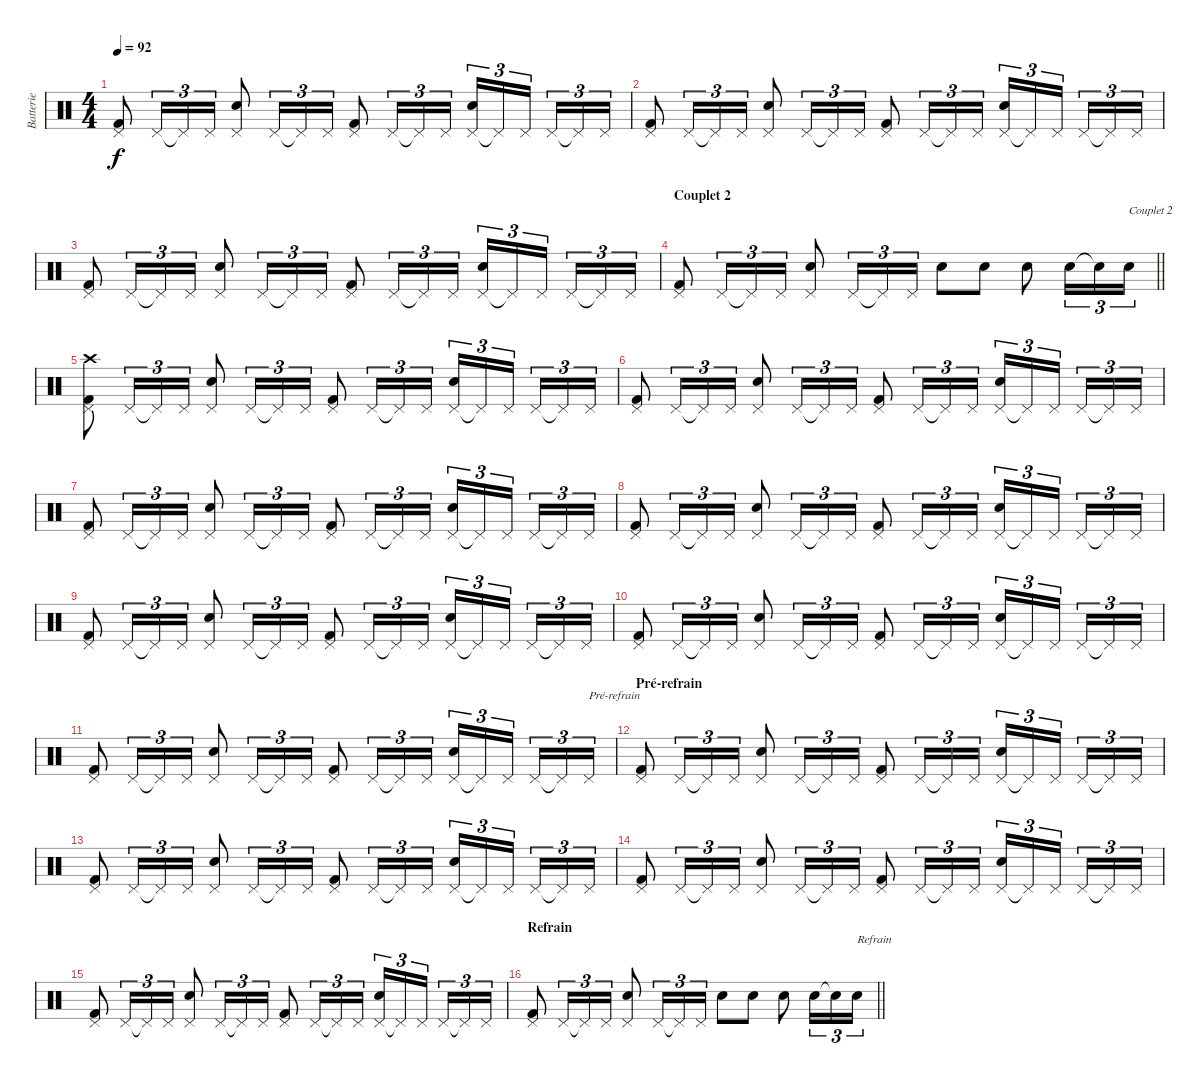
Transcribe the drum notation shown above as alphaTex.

\track ("Batterie" "Batterie") {instrument percussion}
\staff {score}
\articulation defaults
\ts (4 4)
\tempo 92
\clef neutral
\ks c
("Pedal Hi-Hat (hit)" "Kick (hit) 2").8{dy f} "Pedal Hi-Hat (hit)".16{tu (3 2)} "Pedal Hi-Hat (hit)"{t}.16{tu (3 2)} "Pedal Hi-Hat (hit)".16{tu (3 2)} ("Pedal Hi-Hat (hit)" "Electric Snare (hit)").8 "Pedal Hi-Hat (hit)".16{tu (3 2)} "Pedal Hi-Hat (hit)"{t}.16{tu (3 2)} "Pedal Hi-Hat (hit)".16{tu (3 2)} ("Pedal Hi-Hat (hit)" "Kick (hit) 2").8 "Pedal Hi-Hat (hit)".16{tu (3 2)} "Pedal Hi-Hat (hit)"{t}.16{tu (3 2)} "Pedal Hi-Hat (hit)".16{tu (3 2)} ("Pedal Hi-Hat (hit)" "Electric Snare (hit)").16{tu (3 2)} "Pedal Hi-Hat (hit)"{t}.16{tu (3 2)} "Pedal Hi-Hat (hit)".16{tu (3 2)} "Pedal Hi-Hat (hit)".16{tu (3 2)} "Pedal Hi-Hat (hit)"{t}.16{tu (3 2)} "Pedal Hi-Hat (hit)".16{tu (3 2)} |
("Pedal Hi-Hat (hit)" "Kick (hit) 2").8 "Pedal Hi-Hat (hit)".16{tu (3 2)} "Pedal Hi-Hat (hit)"{t}.16{tu (3 2)} "Pedal Hi-Hat (hit)".16{tu (3 2)} ("Pedal Hi-Hat (hit)" "Electric Snare (hit)").8 "Pedal Hi-Hat (hit)".16{tu (3 2)} "Pedal Hi-Hat (hit)"{t}.16{tu (3 2)} "Pedal Hi-Hat (hit)".16{tu (3 2)} ("Pedal Hi-Hat (hit)" "Kick (hit) 2").8 "Pedal Hi-Hat (hit)".16{tu (3 2)} "Pedal Hi-Hat (hit)"{t}.16{tu (3 2)} "Pedal Hi-Hat (hit)".16{tu (3 2)} ("Pedal Hi-Hat (hit)" "Electric Snare (hit)").16{tu (3 2)} "Pedal Hi-Hat (hit)"{t}.16{tu (3 2)} "Pedal Hi-Hat (hit)".16{tu (3 2)} "Pedal Hi-Hat (hit)".16{tu (3 2)} "Pedal Hi-Hat (hit)"{t}.16{tu (3 2)} "Pedal Hi-Hat (hit)".16{tu (3 2)} |
("Pedal Hi-Hat (hit)" "Kick (hit) 2").8 "Pedal Hi-Hat (hit)".16{tu (3 2)} "Pedal Hi-Hat (hit)"{t}.16{tu (3 2)} "Pedal Hi-Hat (hit)".16{tu (3 2)} ("Pedal Hi-Hat (hit)" "Electric Snare (hit)").8 "Pedal Hi-Hat (hit)".16{tu (3 2)} "Pedal Hi-Hat (hit)"{t}.16{tu (3 2)} "Pedal Hi-Hat (hit)".16{tu (3 2)} ("Pedal Hi-Hat (hit)" "Kick (hit) 2").8 "Pedal Hi-Hat (hit)".16{tu (3 2)} "Pedal Hi-Hat (hit)"{t}.16{tu (3 2)} "Pedal Hi-Hat (hit)".16{tu (3 2)} ("Pedal Hi-Hat (hit)" "Electric Snare (hit)").16{tu (3 2)} "Pedal Hi-Hat (hit)"{t}.16{tu (3 2)} "Pedal Hi-Hat (hit)".16{tu (3 2)} "Pedal Hi-Hat (hit)".16{tu (3 2)} "Pedal Hi-Hat (hit)"{t}.16{tu (3 2)} "Pedal Hi-Hat (hit)".16{tu (3 2)} |
\section ("" "Couplet 2")
\barLineRight lightlight
("Pedal Hi-Hat (hit)" "Kick (hit) 2").8 "Pedal Hi-Hat (hit)".16{tu (3 2)} "Pedal Hi-Hat (hit)"{t}.16{tu (3 2)} "Pedal Hi-Hat (hit)".16{tu (3 2)} ("Pedal Hi-Hat (hit)" "Electric Snare (hit)").8 "Pedal Hi-Hat (hit)".16{tu (3 2)} "Pedal Hi-Hat (hit)"{t}.16{tu (3 2)} "Pedal Hi-Hat (hit)".16{tu (3 2)} "Electric Snare (hit)".8 "Electric Snare (hit)".8 "Electric Snare (hit)".8 "Electric Snare (hit)".16{tu (3 2)} "Electric Snare (hit)"{t}.16{tu (3 2)} "Electric Snare (hit)".16{tu (3 2) txt "Couplet 2"} |
("Pedal Hi-Hat (hit)" "Crash high (hit)" "Kick (hit) 2").8 "Pedal Hi-Hat (hit)".16{tu (3 2)} "Pedal Hi-Hat (hit)"{t}.16{tu (3 2)} "Pedal Hi-Hat (hit)".16{tu (3 2)} ("Pedal Hi-Hat (hit)" "Electric Snare (hit)").8 "Pedal Hi-Hat (hit)".16{tu (3 2)} "Pedal Hi-Hat (hit)"{t}.16{tu (3 2)} "Pedal Hi-Hat (hit)".16{tu (3 2)} ("Pedal Hi-Hat (hit)" "Kick (hit) 2").8 "Pedal Hi-Hat (hit)".16{tu (3 2)} "Pedal Hi-Hat (hit)"{t}.16{tu (3 2)} "Pedal Hi-Hat (hit)".16{tu (3 2)} ("Pedal Hi-Hat (hit)" "Electric Snare (hit)").16{tu (3 2)} "Pedal Hi-Hat (hit)"{t}.16{tu (3 2)} "Pedal Hi-Hat (hit)".16{tu (3 2)} "Pedal Hi-Hat (hit)".16{tu (3 2)} "Pedal Hi-Hat (hit)"{t}.16{tu (3 2)} "Pedal Hi-Hat (hit)".16{tu (3 2)} |
("Pedal Hi-Hat (hit)" "Kick (hit) 2").8 "Pedal Hi-Hat (hit)".16{tu (3 2)} "Pedal Hi-Hat (hit)"{t}.16{tu (3 2)} "Pedal Hi-Hat (hit)".16{tu (3 2)} ("Pedal Hi-Hat (hit)" "Electric Snare (hit)").8 "Pedal Hi-Hat (hit)".16{tu (3 2)} "Pedal Hi-Hat (hit)"{t}.16{tu (3 2)} "Pedal Hi-Hat (hit)".16{tu (3 2)} ("Pedal Hi-Hat (hit)" "Kick (hit) 2").8 "Pedal Hi-Hat (hit)".16{tu (3 2)} "Pedal Hi-Hat (hit)"{t}.16{tu (3 2)} "Pedal Hi-Hat (hit)".16{tu (3 2)} ("Pedal Hi-Hat (hit)" "Electric Snare (hit)").16{tu (3 2)} "Pedal Hi-Hat (hit)"{t}.16{tu (3 2)} "Pedal Hi-Hat (hit)".16{tu (3 2)} "Pedal Hi-Hat (hit)".16{tu (3 2)} "Pedal Hi-Hat (hit)"{t}.16{tu (3 2)} "Pedal Hi-Hat (hit)".16{tu (3 2)} |
("Pedal Hi-Hat (hit)" "Kick (hit) 2").8 "Pedal Hi-Hat (hit)".16{tu (3 2)} "Pedal Hi-Hat (hit)"{t}.16{tu (3 2)} "Pedal Hi-Hat (hit)".16{tu (3 2)} ("Pedal Hi-Hat (hit)" "Electric Snare (hit)").8 "Pedal Hi-Hat (hit)".16{tu (3 2)} "Pedal Hi-Hat (hit)"{t}.16{tu (3 2)} "Pedal Hi-Hat (hit)".16{tu (3 2)} ("Pedal Hi-Hat (hit)" "Kick (hit) 2").8 "Pedal Hi-Hat (hit)".16{tu (3 2)} "Pedal Hi-Hat (hit)"{t}.16{tu (3 2)} "Pedal Hi-Hat (hit)".16{tu (3 2)} ("Pedal Hi-Hat (hit)" "Electric Snare (hit)").16{tu (3 2)} "Pedal Hi-Hat (hit)"{t}.16{tu (3 2)} "Pedal Hi-Hat (hit)".16{tu (3 2)} "Pedal Hi-Hat (hit)".16{tu (3 2)} "Pedal Hi-Hat (hit)"{t}.16{tu (3 2)} "Pedal Hi-Hat (hit)".16{tu (3 2)} |
("Pedal Hi-Hat (hit)" "Kick (hit) 2").8 "Pedal Hi-Hat (hit)".16{tu (3 2)} "Pedal Hi-Hat (hit)"{t}.16{tu (3 2)} "Pedal Hi-Hat (hit)".16{tu (3 2)} ("Pedal Hi-Hat (hit)" "Electric Snare (hit)").8 "Pedal Hi-Hat (hit)".16{tu (3 2)} "Pedal Hi-Hat (hit)"{t}.16{tu (3 2)} "Pedal Hi-Hat (hit)".16{tu (3 2)} ("Pedal Hi-Hat (hit)" "Kick (hit) 2").8 "Pedal Hi-Hat (hit)".16{tu (3 2)} "Pedal Hi-Hat (hit)"{t}.16{tu (3 2)} "Pedal Hi-Hat (hit)".16{tu (3 2)} ("Pedal Hi-Hat (hit)" "Electric Snare (hit)").16{tu (3 2)} "Pedal Hi-Hat (hit)"{t}.16{tu (3 2)} "Pedal Hi-Hat (hit)".16{tu (3 2)} "Pedal Hi-Hat (hit)".16{tu (3 2)} "Pedal Hi-Hat (hit)"{t}.16{tu (3 2)} "Pedal Hi-Hat (hit)".16{tu (3 2)} |
("Pedal Hi-Hat (hit)" "Kick (hit) 2").8 "Pedal Hi-Hat (hit)".16{tu (3 2)} "Pedal Hi-Hat (hit)"{t}.16{tu (3 2)} "Pedal Hi-Hat (hit)".16{tu (3 2)} ("Pedal Hi-Hat (hit)" "Electric Snare (hit)").8 "Pedal Hi-Hat (hit)".16{tu (3 2)} "Pedal Hi-Hat (hit)"{t}.16{tu (3 2)} "Pedal Hi-Hat (hit)".16{tu (3 2)} ("Pedal Hi-Hat (hit)" "Kick (hit) 2").8 "Pedal Hi-Hat (hit)".16{tu (3 2)} "Pedal Hi-Hat (hit)"{t}.16{tu (3 2)} "Pedal Hi-Hat (hit)".16{tu (3 2)} ("Pedal Hi-Hat (hit)" "Electric Snare (hit)").16{tu (3 2)} "Pedal Hi-Hat (hit)"{t}.16{tu (3 2)} "Pedal Hi-Hat (hit)".16{tu (3 2)} "Pedal Hi-Hat (hit)".16{tu (3 2)} "Pedal Hi-Hat (hit)"{t}.16{tu (3 2)} "Pedal Hi-Hat (hit)".16{tu (3 2)} |
("Pedal Hi-Hat (hit)" "Kick (hit) 2").8 "Pedal Hi-Hat (hit)".16{tu (3 2)} "Pedal Hi-Hat (hit)"{t}.16{tu (3 2)} "Pedal Hi-Hat (hit)".16{tu (3 2)} ("Pedal Hi-Hat (hit)" "Electric Snare (hit)").8 "Pedal Hi-Hat (hit)".16{tu (3 2)} "Pedal Hi-Hat (hit)"{t}.16{tu (3 2)} "Pedal Hi-Hat (hit)".16{tu (3 2)} ("Pedal Hi-Hat (hit)" "Kick (hit) 2").8 "Pedal Hi-Hat (hit)".16{tu (3 2)} "Pedal Hi-Hat (hit)"{t}.16{tu (3 2)} "Pedal Hi-Hat (hit)".16{tu (3 2)} ("Pedal Hi-Hat (hit)" "Electric Snare (hit)").16{tu (3 2)} "Pedal Hi-Hat (hit)"{t}.16{tu (3 2)} "Pedal Hi-Hat (hit)".16{tu (3 2)} "Pedal Hi-Hat (hit)".16{tu (3 2)} "Pedal Hi-Hat (hit)"{t}.16{tu (3 2)} "Pedal Hi-Hat (hit)".16{tu (3 2)} |
("Pedal Hi-Hat (hit)" "Kick (hit) 2").8 "Pedal Hi-Hat (hit)".16{tu (3 2)} "Pedal Hi-Hat (hit)"{t}.16{tu (3 2)} "Pedal Hi-Hat (hit)".16{tu (3 2)} ("Pedal Hi-Hat (hit)" "Electric Snare (hit)").8 "Pedal Hi-Hat (hit)".16{tu (3 2)} "Pedal Hi-Hat (hit)"{t}.16{tu (3 2)} "Pedal Hi-Hat (hit)".16{tu (3 2)} ("Pedal Hi-Hat (hit)" "Kick (hit) 2").8 "Pedal Hi-Hat (hit)".16{tu (3 2)} "Pedal Hi-Hat (hit)"{t}.16{tu (3 2)} "Pedal Hi-Hat (hit)".16{tu (3 2)} ("Pedal Hi-Hat (hit)" "Electric Snare (hit)").16{tu (3 2)} "Pedal Hi-Hat (hit)"{t}.16{tu (3 2)} "Pedal Hi-Hat (hit)".16{tu (3 2)} "Pedal Hi-Hat (hit)".16{tu (3 2)} "Pedal Hi-Hat (hit)"{t}.16{tu (3 2)} "Pedal Hi-Hat (hit)".16{tu (3 2) txt "Pré-refrain"} |
\section ("" "Pré-refrain")
("Pedal Hi-Hat (hit)" "Kick (hit) 2").8 "Pedal Hi-Hat (hit)".16{tu (3 2)} "Pedal Hi-Hat (hit)"{t}.16{tu (3 2)} "Pedal Hi-Hat (hit)".16{tu (3 2)} ("Pedal Hi-Hat (hit)" "Electric Snare (hit)").8 "Pedal Hi-Hat (hit)".16{tu (3 2)} "Pedal Hi-Hat (hit)"{t}.16{tu (3 2)} "Pedal Hi-Hat (hit)".16{tu (3 2)} ("Pedal Hi-Hat (hit)" "Kick (hit) 2").8 "Pedal Hi-Hat (hit)".16{tu (3 2)} "Pedal Hi-Hat (hit)"{t}.16{tu (3 2)} "Pedal Hi-Hat (hit)".16{tu (3 2)} ("Pedal Hi-Hat (hit)" "Electric Snare (hit)").16{tu (3 2)} "Pedal Hi-Hat (hit)"{t}.16{tu (3 2)} "Pedal Hi-Hat (hit)".16{tu (3 2)} "Pedal Hi-Hat (hit)".16{tu (3 2)} "Pedal Hi-Hat (hit)"{t}.16{tu (3 2)} "Pedal Hi-Hat (hit)".16{tu (3 2)} |
("Pedal Hi-Hat (hit)" "Kick (hit) 2").8 "Pedal Hi-Hat (hit)".16{tu (3 2)} "Pedal Hi-Hat (hit)"{t}.16{tu (3 2)} "Pedal Hi-Hat (hit)".16{tu (3 2)} ("Pedal Hi-Hat (hit)" "Electric Snare (hit)").8 "Pedal Hi-Hat (hit)".16{tu (3 2)} "Pedal Hi-Hat (hit)"{t}.16{tu (3 2)} "Pedal Hi-Hat (hit)".16{tu (3 2)} ("Pedal Hi-Hat (hit)" "Kick (hit) 2").8 "Pedal Hi-Hat (hit)".16{tu (3 2)} "Pedal Hi-Hat (hit)"{t}.16{tu (3 2)} "Pedal Hi-Hat (hit)".16{tu (3 2)} ("Pedal Hi-Hat (hit)" "Electric Snare (hit)").16{tu (3 2)} "Pedal Hi-Hat (hit)"{t}.16{tu (3 2)} "Pedal Hi-Hat (hit)".16{tu (3 2)} "Pedal Hi-Hat (hit)".16{tu (3 2)} "Pedal Hi-Hat (hit)"{t}.16{tu (3 2)} "Pedal Hi-Hat (hit)".16{tu (3 2)} |
("Pedal Hi-Hat (hit)" "Kick (hit) 2").8 "Pedal Hi-Hat (hit)".16{tu (3 2)} "Pedal Hi-Hat (hit)"{t}.16{tu (3 2)} "Pedal Hi-Hat (hit)".16{tu (3 2)} ("Pedal Hi-Hat (hit)" "Electric Snare (hit)").8 "Pedal Hi-Hat (hit)".16{tu (3 2)} "Pedal Hi-Hat (hit)"{t}.16{tu (3 2)} "Pedal Hi-Hat (hit)".16{tu (3 2)} ("Pedal Hi-Hat (hit)" "Kick (hit) 2").8 "Pedal Hi-Hat (hit)".16{tu (3 2)} "Pedal Hi-Hat (hit)"{t}.16{tu (3 2)} "Pedal Hi-Hat (hit)".16{tu (3 2)} ("Pedal Hi-Hat (hit)" "Electric Snare (hit)").16{tu (3 2)} "Pedal Hi-Hat (hit)"{t}.16{tu (3 2)} "Pedal Hi-Hat (hit)".16{tu (3 2)} "Pedal Hi-Hat (hit)".16{tu (3 2)} "Pedal Hi-Hat (hit)"{t}.16{tu (3 2)} "Pedal Hi-Hat (hit)".16{tu (3 2)} |
("Pedal Hi-Hat (hit)" "Kick (hit) 2").8 "Pedal Hi-Hat (hit)".16{tu (3 2)} "Pedal Hi-Hat (hit)"{t}.16{tu (3 2)} "Pedal Hi-Hat (hit)".16{tu (3 2)} ("Pedal Hi-Hat (hit)" "Electric Snare (hit)").8 "Pedal Hi-Hat (hit)".16{tu (3 2)} "Pedal Hi-Hat (hit)"{t}.16{tu (3 2)} "Pedal Hi-Hat (hit)".16{tu (3 2)} ("Pedal Hi-Hat (hit)" "Kick (hit) 2").8 "Pedal Hi-Hat (hit)".16{tu (3 2)} "Pedal Hi-Hat (hit)"{t}.16{tu (3 2)} "Pedal Hi-Hat (hit)".16{tu (3 2)} ("Pedal Hi-Hat (hit)" "Electric Snare (hit)").16{tu (3 2)} "Pedal Hi-Hat (hit)"{t}.16{tu (3 2)} "Pedal Hi-Hat (hit)".16{tu (3 2)} "Pedal Hi-Hat (hit)".16{tu (3 2)} "Pedal Hi-Hat (hit)"{t}.16{tu (3 2)} "Pedal Hi-Hat (hit)".16{tu (3 2)} |
\section ("" "Refrain")
\barLineRight lightlight
("Pedal Hi-Hat (hit)" "Kick (hit) 2").8 "Pedal Hi-Hat (hit)".16{tu (3 2)} "Pedal Hi-Hat (hit)"{t}.16{tu (3 2)} "Pedal Hi-Hat (hit)".16{tu (3 2)} ("Pedal Hi-Hat (hit)" "Electric Snare (hit)").8 "Pedal Hi-Hat (hit)".16{tu (3 2)} "Pedal Hi-Hat (hit)"{t}.16{tu (3 2)} "Pedal Hi-Hat (hit)".16{tu (3 2)} "Electric Snare (hit)".8 "Electric Snare (hit)".8 "Electric Snare (hit)".8 "Electric Snare (hit)".16{tu (3 2)} "Electric Snare (hit)"{t}.16{tu (3 2)} "Electric Snare (hit)".16{tu (3 2) txt "Refrain"}
